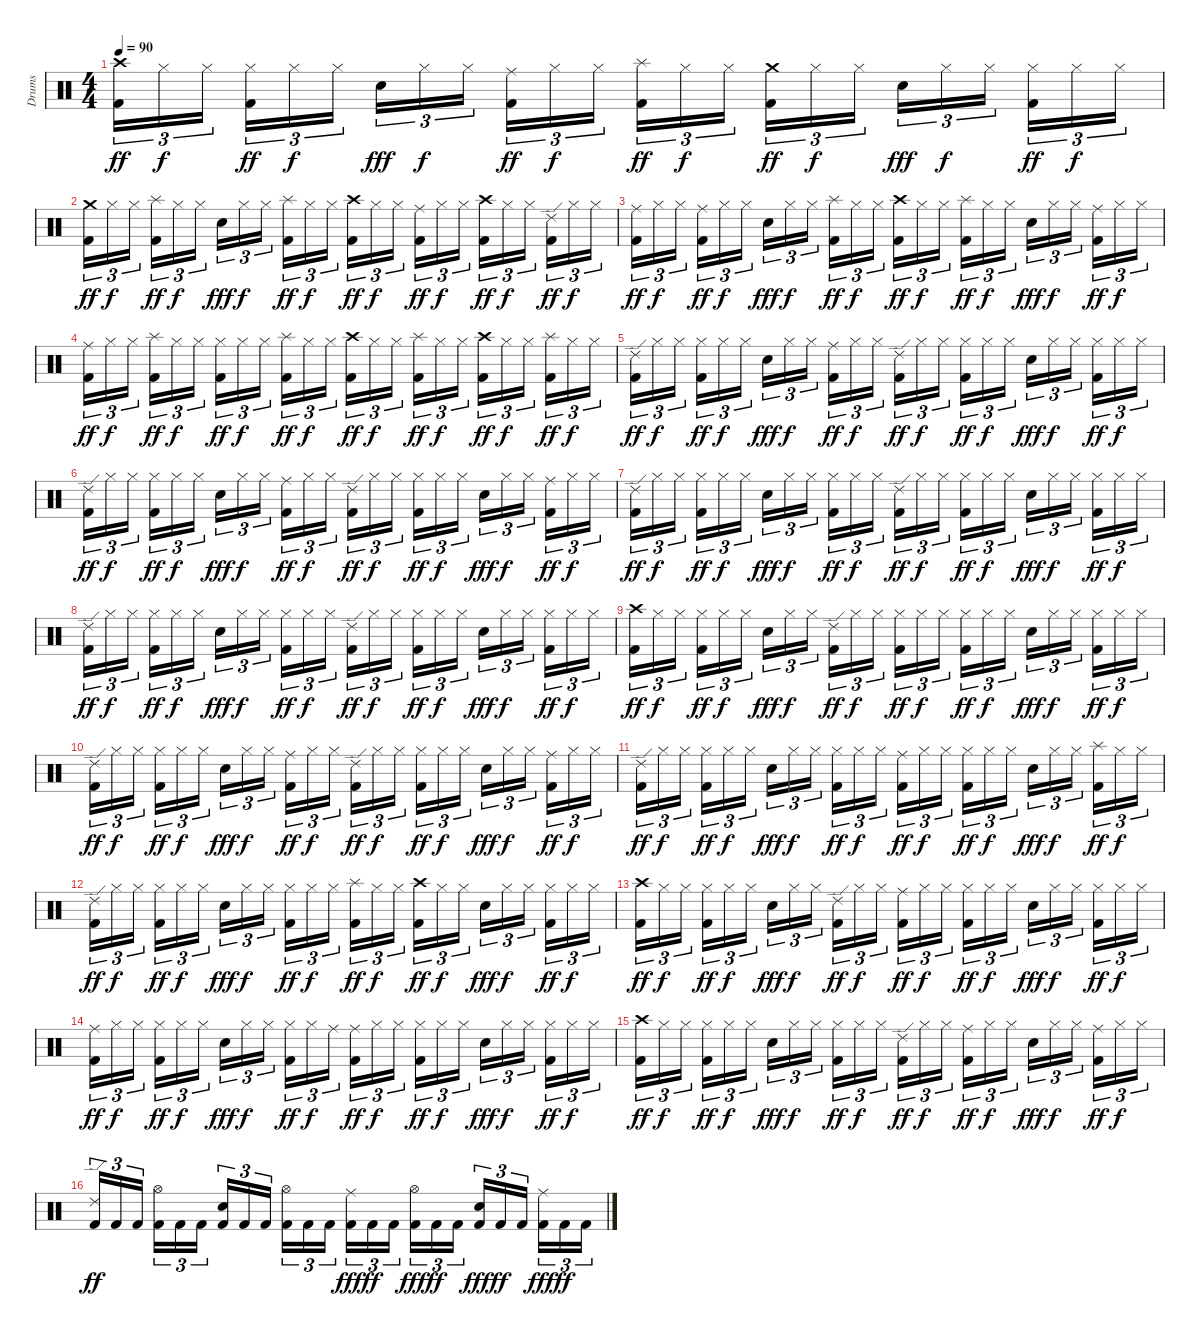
\track ("Drums" "Drums") {instrument percussion}
\staff {score}
\articulation defaults
\ts (4 4)
\tempo 90
\clef neutral
\ks c
("Crash high (hit)" "Kick (hit) 2").16{tu (3 2) dy ff} "Hi-Hat (closed)".16{tu (3 2) dy f} "Hi-Hat (closed)".16{tu (3 2) beam splitsecondary} ("Hi-Hat (closed)" "Kick (hit) 2").16{tu (3 2) dy ff} "Hi-Hat (closed)".16{tu (3 2) dy f} "Hi-Hat (closed)".16{tu (3 2)} "Snare (hit) 2".16{tu (3 2) dy fff} "Hi-Hat (closed)".16{tu (3 2) dy f} "Hi-Hat (closed)".16{tu (3 2) beam splitsecondary} ("Ride (middle)" "Kick (hit) 2").16{tu (3 2) dy ff} "Hi-Hat (closed)".16{tu (3 2) dy f} "Hi-Hat (closed)".16{tu (3 2)} ("Splash (hit)" "Kick (hit) 2").16{tu (3 2) dy ff} "Hi-Hat (closed)".16{tu (3 2) dy f} "Hi-Hat (closed)".16{tu (3 2) beam splitsecondary} ("Crash medium (hit)" "Kick (hit) 2").16{tu (3 2) dy ff} "Hi-Hat (closed)".16{tu (3 2) dy f} "Hi-Hat (closed)".16{tu (3 2)} "Snare (hit) 2".16{tu (3 2) dy fff} "Hi-Hat (closed)".16{tu (3 2) dy f} "Hi-Hat (closed)".16{tu (3 2) beam splitsecondary} ("Hi-Hat (closed)" "Kick (hit) 2").16{tu (3 2) dy ff} "Hi-Hat (closed)".16{tu (3 2) dy f} "Hi-Hat (closed)".16{tu (3 2)} |
("Crash medium (hit)" "Kick (hit) 2").16{tu (3 2) dy ff} "Hi-Hat (closed)".16{tu (3 2) dy f} "Hi-Hat (closed)".16{tu (3 2) beam splitsecondary} ("Splash (hit)" "Kick (hit) 2").16{tu (3 2) dy ff} "Hi-Hat (closed)".16{tu (3 2) dy f} "Hi-Hat (closed)".16{tu (3 2)} "Snare (hit) 2".16{tu (3 2) dy fff} "Hi-Hat (closed)".16{tu (3 2) dy f} "Hi-Hat (closed)".16{tu (3 2) beam splitsecondary} ("Splash (hit)" "Kick (hit) 2").16{tu (3 2) dy ff} "Hi-Hat (closed)".16{tu (3 2) dy f} "Hi-Hat (closed)".16{tu (3 2)} ("Crash high (hit)" "Kick (hit) 2").16{tu (3 2) dy ff} "Hi-Hat (closed)".16{tu (3 2) dy f} "Hi-Hat (closed)".16{tu (3 2) beam splitsecondary} ("Ride (middle)" "Kick (hit) 2").16{tu (3 2) dy ff} "Hi-Hat (closed)".16{tu (3 2) dy f} "Hi-Hat (closed)".16{tu (3 2)} ("Crash high (hit)" "Kick (hit) 2").16{tu (3 2) dy ff} "Hi-Hat (closed)".16{tu (3 2) dy f} "Hi-Hat (closed)".16{tu (3 2) beam splitsecondary} ("Ride (edge) 2" "Kick (hit) 2").16{tu (3 2) dy ff} "Hi-Hat (closed)".16{tu (3 2) dy f} "Hi-Hat (closed)".16{tu (3 2)} |
("Ride (middle)" "Kick (hit) 2").16{tu (3 2) dy ff} "Hi-Hat (closed)".16{tu (3 2) dy f} "Hi-Hat (closed)".16{tu (3 2) beam splitsecondary} ("Ride (middle)" "Kick (hit) 2").16{tu (3 2) dy ff} "Hi-Hat (closed)".16{tu (3 2) dy f} "Hi-Hat (closed)".16{tu (3 2)} "Snare (hit) 2".16{tu (3 2) dy fff} "Hi-Hat (closed)".16{tu (3 2) dy f} "Hi-Hat (closed)".16{tu (3 2) beam splitsecondary} ("Splash (hit)" "Kick (hit) 2").16{tu (3 2) dy ff} "Hi-Hat (closed)".16{tu (3 2) dy f} "Hi-Hat (closed)".16{tu (3 2)} ("Crash high (hit)" "Kick (hit) 2").16{tu (3 2) dy ff} "Hi-Hat (closed)".16{tu (3 2) dy f} "Hi-Hat (closed)".16{tu (3 2) beam splitsecondary} ("Splash (hit)" "Kick (hit) 2").16{tu (3 2) dy ff} "Hi-Hat (closed)".16{tu (3 2) dy f} "Hi-Hat (closed)".16{tu (3 2)} "Snare (hit) 2".16{tu (3 2) dy fff} "Hi-Hat (closed)".16{tu (3 2) dy f} "Hi-Hat (closed)".16{tu (3 2) beam splitsecondary} ("Ride (middle)" "Kick (hit) 2").16{tu (3 2) dy ff} "Hi-Hat (closed)".16{tu (3 2) dy f} "Hi-Hat (closed)".16{tu (3 2)} |
("Ride (middle)" "Kick (hit) 2").16{tu (3 2) dy ff} "Hi-Hat (closed)".16{tu (3 2) dy f} "Hi-Hat (closed)".16{tu (3 2) beam splitsecondary} ("Splash (hit)" "Kick (hit) 2").16{tu (3 2) dy ff} "Hi-Hat (closed)".16{tu (3 2) dy f} "Hi-Hat (closed)".16{tu (3 2)} ("Hi-Hat (closed)" "Kick (hit) 2").16{tu (3 2) dy ff} "Hi-Hat (closed)".16{tu (3 2) dy f} "Hi-Hat (closed)".16{tu (3 2) beam splitsecondary} ("Splash (hit)" "Kick (hit) 2").16{tu (3 2) dy ff} "Hi-Hat (closed)".16{tu (3 2) dy f} "Hi-Hat (closed)".16{tu (3 2)} ("Crash high (hit)" "Kick (hit) 2").16{tu (3 2) dy ff} "Hi-Hat (closed)".16{tu (3 2) dy f} "Hi-Hat (closed)".16{tu (3 2) beam splitsecondary} ("Splash (hit)" "Kick (hit) 2").16{tu (3 2) dy ff} "Hi-Hat (closed)".16{tu (3 2) dy f} "Hi-Hat (closed)".16{tu (3 2)} ("Crash high (hit)" "Kick (hit) 2").16{tu (3 2) dy ff} "Hi-Hat (closed)".16{tu (3 2) dy f} "Hi-Hat (closed)".16{tu (3 2) beam splitsecondary} ("Splash (hit)" "Kick (hit) 2").16{tu (3 2) dy ff} "Hi-Hat (closed)".16{tu (3 2) dy f} "Hi-Hat (closed)".16{tu (3 2)} |
("Ride (edge) 2" "Kick (hit) 2").16{tu (3 2) dy ff} "Hi-Hat (closed)".16{tu (3 2) dy f} "Hi-Hat (closed)".16{tu (3 2) beam splitsecondary} ("Hi-Hat (closed)" "Kick (hit) 2").16{tu (3 2) dy ff} "Hi-Hat (closed)".16{tu (3 2) dy f} "Hi-Hat (closed)".16{tu (3 2)} "Snare (hit) 2".16{tu (3 2) dy fff} "Hi-Hat (closed)".16{tu (3 2) dy f} "Hi-Hat (closed)".16{tu (3 2) beam splitsecondary} ("Ride (middle)" "Kick (hit) 2").16{tu (3 2) dy ff} "Hi-Hat (closed)".16{tu (3 2) dy f} "Hi-Hat (closed)".16{tu (3 2)} ("Ride (edge) 2" "Kick (hit) 2").16{tu (3 2) dy ff} "Hi-Hat (closed)".16{tu (3 2) dy f} "Hi-Hat (closed)".16{tu (3 2) beam splitsecondary} ("Hi-Hat (closed)" "Kick (hit) 2").16{tu (3 2) dy ff} "Hi-Hat (closed)".16{tu (3 2) dy f} "Hi-Hat (closed)".16{tu (3 2)} "Snare (hit) 2".16{tu (3 2) dy fff} "Hi-Hat (closed)".16{tu (3 2) dy f} "Hi-Hat (closed)".16{tu (3 2) beam splitsecondary} ("Hi-Hat (closed)" "Kick (hit) 2").16{tu (3 2) dy ff} "Hi-Hat (closed)".16{tu (3 2) dy f} "Hi-Hat (closed)".16{tu (3 2)} |
("Ride (edge) 2" "Kick (hit) 2").16{tu (3 2) dy ff} "Hi-Hat (closed)".16{tu (3 2) dy f} "Hi-Hat (closed)".16{tu (3 2) beam splitsecondary} ("Hi-Hat (closed)" "Kick (hit) 2").16{tu (3 2) dy ff} "Hi-Hat (closed)".16{tu (3 2) dy f} "Hi-Hat (closed)".16{tu (3 2)} "Snare (hit) 2".16{tu (3 2) dy fff} "Hi-Hat (closed)".16{tu (3 2) dy f} "Hi-Hat (closed)".16{tu (3 2) beam splitsecondary} ("Ride (middle)" "Kick (hit) 2").16{tu (3 2) dy ff} "Hi-Hat (closed)".16{tu (3 2) dy f} "Hi-Hat (closed)".16{tu (3 2)} ("Ride (edge) 2" "Kick (hit) 2").16{tu (3 2) dy ff} "Hi-Hat (closed)".16{tu (3 2) dy f} "Hi-Hat (closed)".16{tu (3 2) beam splitsecondary} ("Hi-Hat (closed)" "Kick (hit) 2").16{tu (3 2) dy ff} "Hi-Hat (closed)".16{tu (3 2) dy f} "Hi-Hat (closed)".16{tu (3 2)} "Snare (hit) 2".16{tu (3 2) dy fff} "Hi-Hat (closed)".16{tu (3 2) dy f} "Hi-Hat (closed)".16{tu (3 2) beam splitsecondary} ("Ride (middle)" "Kick (hit) 2").16{tu (3 2) dy ff} "Hi-Hat (closed)".16{tu (3 2) dy f} "Hi-Hat (closed)".16{tu (3 2)} |
("Ride (edge) 2" "Kick (hit) 2").16{tu (3 2) dy ff} "Hi-Hat (closed)".16{tu (3 2) dy f} "Hi-Hat (closed)".16{tu (3 2) beam splitsecondary} ("Hi-Hat (closed)" "Kick (hit) 2").16{tu (3 2) dy ff} "Hi-Hat (closed)".16{tu (3 2) dy f} "Hi-Hat (closed)".16{tu (3 2)} "Snare (hit) 2".16{tu (3 2) dy fff} "Hi-Hat (closed)".16{tu (3 2) dy f} "Hi-Hat (closed)".16{tu (3 2) beam splitsecondary} ("Hi-Hat (closed)" "Kick (hit) 2").16{tu (3 2) dy ff} "Hi-Hat (closed)".16{tu (3 2) dy f} "Hi-Hat (closed)".16{tu (3 2)} ("Ride (edge) 2" "Kick (hit) 2").16{tu (3 2) dy ff} "Hi-Hat (closed)".16{tu (3 2) dy f} "Hi-Hat (closed)".16{tu (3 2) beam splitsecondary} ("Hi-Hat (closed)" "Kick (hit) 2").16{tu (3 2) dy ff} "Hi-Hat (closed)".16{tu (3 2) dy f} "Hi-Hat (closed)".16{tu (3 2)} "Snare (hit) 2".16{tu (3 2) dy fff} "Hi-Hat (closed)".16{tu (3 2) dy f} "Hi-Hat (closed)".16{tu (3 2) beam splitsecondary} ("Hi-Hat (closed)" "Kick (hit) 2").16{tu (3 2) dy ff} "Hi-Hat (closed)".16{tu (3 2) dy f} "Hi-Hat (closed)".16{tu (3 2)} |
("Ride (edge) 2" "Kick (hit) 2").16{tu (3 2) dy ff} "Hi-Hat (closed)".16{tu (3 2) dy f} "Hi-Hat (closed)".16{tu (3 2) beam splitsecondary} ("Hi-Hat (closed)" "Kick (hit) 2").16{tu (3 2) dy ff} "Hi-Hat (closed)".16{tu (3 2) dy f} "Hi-Hat (closed)".16{tu (3 2)} "Snare (hit) 2".16{tu (3 2) dy fff} "Hi-Hat (closed)".16{tu (3 2) dy f} "Hi-Hat (closed)".16{tu (3 2) beam splitsecondary} ("Hi-Hat (closed)" "Kick (hit) 2").16{tu (3 2) dy ff} "Hi-Hat (closed)".16{tu (3 2) dy f} "Hi-Hat (closed)".16{tu (3 2)} ("Ride (edge) 2" "Kick (hit) 2").16{tu (3 2) dy ff} "Hi-Hat (closed)".16{tu (3 2) dy f} "Hi-Hat (closed)".16{tu (3 2) beam splitsecondary} ("Hi-Hat (closed)" "Kick (hit) 2").16{tu (3 2) dy ff} "Hi-Hat (closed)".16{tu (3 2) dy f} "Hi-Hat (closed)".16{tu (3 2)} "Snare (hit) 2".16{tu (3 2) dy fff} "Hi-Hat (closed)".16{tu (3 2) dy f} "Hi-Hat (closed)".16{tu (3 2) beam splitsecondary} ("Hi-Hat (closed)" "Kick (hit) 2").16{tu (3 2) dy ff} "Hi-Hat (closed)".16{tu (3 2) dy f} "Hi-Hat (closed)".16{tu (3 2)} |
("Crash high (hit)" "Kick (hit) 2").16{tu (3 2) dy ff} "Hi-Hat (closed)".16{tu (3 2) dy f} "Hi-Hat (closed)".16{tu (3 2) beam splitsecondary} ("Hi-Hat (closed)" "Kick (hit) 2").16{tu (3 2) dy ff} "Hi-Hat (closed)".16{tu (3 2) dy f} "Hi-Hat (closed)".16{tu (3 2)} "Snare (hit) 2".16{tu (3 2) dy fff} "Hi-Hat (closed)".16{tu (3 2) dy f} "Hi-Hat (closed)".16{tu (3 2) beam splitsecondary} ("Ride (edge) 2" "Kick (hit) 2").16{tu (3 2) dy ff} "Hi-Hat (closed)".16{tu (3 2) dy f} "Hi-Hat (closed)".16{tu (3 2)} ("Hi-Hat (closed)" "Kick (hit) 2").16{tu (3 2) dy ff} "Hi-Hat (closed)".16{tu (3 2) dy f} "Hi-Hat (closed)".16{tu (3 2) beam splitsecondary} ("Hi-Hat (closed)" "Kick (hit) 2").16{tu (3 2) dy ff} "Hi-Hat (closed)".16{tu (3 2) dy f} "Hi-Hat (closed)".16{tu (3 2)} "Snare (hit) 2".16{tu (3 2) dy fff} "Hi-Hat (closed)".16{tu (3 2) dy f} "Hi-Hat (closed)".16{tu (3 2) beam splitsecondary} ("Hi-Hat (closed)" "Kick (hit) 2").16{tu (3 2) dy ff} "Hi-Hat (closed)".16{tu (3 2) dy f} "Hi-Hat (closed)".16{tu (3 2)} |
("Ride (edge) 2" "Kick (hit) 2").16{tu (3 2) dy ff} "Hi-Hat (closed)".16{tu (3 2) dy f} "Hi-Hat (closed)".16{tu (3 2) beam splitsecondary} ("Hi-Hat (closed)" "Kick (hit) 2").16{tu (3 2) dy ff} "Hi-Hat (closed)".16{tu (3 2) dy f} "Hi-Hat (closed)".16{tu (3 2)} "Snare (hit) 2".16{tu (3 2) dy fff} "Hi-Hat (closed)".16{tu (3 2) dy f} "Hi-Hat (closed)".16{tu (3 2) beam splitsecondary} ("Ride (middle)" "Kick (hit) 2").16{tu (3 2) dy ff} "Hi-Hat (closed)".16{tu (3 2) dy f} "Hi-Hat (closed)".16{tu (3 2)} ("Ride (edge) 2" "Kick (hit) 2").16{tu (3 2) dy ff} "Hi-Hat (closed)".16{tu (3 2) dy f} "Hi-Hat (closed)".16{tu (3 2) beam splitsecondary} ("Hi-Hat (closed)" "Kick (hit) 2").16{tu (3 2) dy ff} "Hi-Hat (closed)".16{tu (3 2) dy f} "Hi-Hat (closed)".16{tu (3 2)} "Snare (hit) 2".16{tu (3 2) dy fff} "Hi-Hat (closed)".16{tu (3 2) dy f} "Hi-Hat (closed)".16{tu (3 2) beam splitsecondary} ("Ride (middle)" "Kick (hit) 2").16{tu (3 2) dy ff} "Hi-Hat (closed)".16{tu (3 2) dy f} "Hi-Hat (closed)".16{tu (3 2)} |
("Ride (edge) 2" "Kick (hit) 2").16{tu (3 2) dy ff} "Hi-Hat (closed)".16{tu (3 2) dy f} "Hi-Hat (closed)".16{tu (3 2) beam splitsecondary} ("Hi-Hat (closed)" "Kick (hit) 2").16{tu (3 2) dy ff} "Hi-Hat (closed)".16{tu (3 2) dy f} "Hi-Hat (closed)".16{tu (3 2)} "Snare (hit) 2".16{tu (3 2) dy fff} "Hi-Hat (closed)".16{tu (3 2) dy f} "Hi-Hat (closed)".16{tu (3 2) beam splitsecondary} ("Hi-Hat (closed)" "Kick (hit) 2").16{tu (3 2) dy ff} "Hi-Hat (closed)".16{tu (3 2) dy f} "Hi-Hat (closed)".16{tu (3 2)} ("Ride (middle)" "Kick (hit) 2").16{tu (3 2) dy ff} "Hi-Hat (closed)".16{tu (3 2) dy f} "Hi-Hat (closed)".16{tu (3 2) beam splitsecondary} ("Hi-Hat (closed)" "Kick (hit) 2").16{tu (3 2) dy ff} "Hi-Hat (closed)".16{tu (3 2) dy f} "Hi-Hat (closed)".16{tu (3 2)} "Snare (hit) 2".16{tu (3 2) dy fff} "Hi-Hat (closed)".16{tu (3 2) dy f} "Hi-Hat (closed)".16{tu (3 2) beam splitsecondary} ("Splash (hit)" "Kick (hit) 2").16{tu (3 2) dy ff} "Hi-Hat (closed)".16{tu (3 2) dy f} "Hi-Hat (closed)".16{tu (3 2)} |
("Ride (edge) 2" "Kick (hit) 2").16{tu (3 2) dy ff} "Hi-Hat (closed)".16{tu (3 2) dy f} "Hi-Hat (closed)".16{tu (3 2) beam splitsecondary} ("Hi-Hat (closed)" "Kick (hit) 2").16{tu (3 2) dy ff} "Hi-Hat (closed)".16{tu (3 2) dy f} "Hi-Hat (closed)".16{tu (3 2)} "Snare (hit) 2".16{tu (3 2) dy fff} "Hi-Hat (closed)".16{tu (3 2) dy f} "Hi-Hat (closed)".16{tu (3 2) beam splitsecondary} ("Hi-Hat (closed)" "Kick (hit) 2").16{tu (3 2) dy ff} "Hi-Hat (closed)".16{tu (3 2) dy f} "Hi-Hat (closed)".16{tu (3 2)} ("Splash (hit)" "Kick (hit) 2").16{tu (3 2) dy ff} "Hi-Hat (closed)".16{tu (3 2) dy f} "Hi-Hat (closed)".16{tu (3 2) beam splitsecondary} ("Crash high (hit)" "Kick (hit) 2").16{tu (3 2) dy ff} "Hi-Hat (closed)".16{tu (3 2) dy f} "Hi-Hat (closed)".16{tu (3 2)} "Snare (hit) 2".16{tu (3 2) dy fff} "Hi-Hat (closed)".16{tu (3 2) dy f} "Hi-Hat (closed)".16{tu (3 2) beam splitsecondary} ("Hi-Hat (closed)" "Kick (hit) 2").16{tu (3 2) dy ff} "Hi-Hat (closed)".16{tu (3 2) dy f} "Hi-Hat (closed)".16{tu (3 2)} |
("Crash high (hit)" "Kick (hit) 2").16{tu (3 2) dy ff} "Hi-Hat (closed)".16{tu (3 2) dy f} "Hi-Hat (closed)".16{tu (3 2) beam splitsecondary} ("Hi-Hat (closed)" "Kick (hit) 2").16{tu (3 2) dy ff} "Hi-Hat (closed)".16{tu (3 2) dy f} "Hi-Hat (closed)".16{tu (3 2)} "Snare (hit) 2".16{tu (3 2) dy fff} "Hi-Hat (closed)".16{tu (3 2) dy f} "Hi-Hat (closed)".16{tu (3 2) beam splitsecondary} ("Ride (edge) 2" "Kick (hit) 2").16{tu (3 2) dy ff} "Hi-Hat (closed)".16{tu (3 2) dy f} "Hi-Hat (closed)".16{tu (3 2)} ("Ride (middle)" "Kick (hit) 2").16{tu (3 2) dy ff} "Hi-Hat (closed)".16{tu (3 2) dy f} "Hi-Hat (closed)".16{tu (3 2) beam splitsecondary} ("Hi-Hat (closed)" "Kick (hit) 2").16{tu (3 2) dy ff} "Hi-Hat (closed)".16{tu (3 2) dy f} "Hi-Hat (closed)".16{tu (3 2)} "Snare (hit) 2".16{tu (3 2) dy fff} "Hi-Hat (closed)".16{tu (3 2) dy f} "Hi-Hat (closed)".16{tu (3 2) beam splitsecondary} ("Hi-Hat (closed)" "Kick (hit) 2").16{tu (3 2) dy ff} "Hi-Hat (closed)".16{tu (3 2) dy f} "Hi-Hat (closed)".16{tu (3 2)} |
("Ride (middle)" "Kick (hit) 2").16{tu (3 2) dy ff} "Hi-Hat (closed)".16{tu (3 2) dy f} "Hi-Hat (closed)".16{tu (3 2) beam splitsecondary} ("Hi-Hat (closed)" "Kick (hit) 2").16{tu (3 2) dy ff} "Hi-Hat (closed)".16{tu (3 2) dy f} "Hi-Hat (closed)".16{tu (3 2)} "Snare (hit) 2".16{tu (3 2) dy fff} "Hi-Hat (closed)".16{tu (3 2) dy f} "Hi-Hat (closed)".16{tu (3 2) beam splitsecondary} ("Hi-Hat (closed)" "Kick (hit) 2").16{tu (3 2) dy ff} "Hi-Hat (closed)".16{tu (3 2) dy f} "Ride (middle)".16{tu (3 2)} ("Ride (middle)" "Kick (hit) 2").16{tu (3 2) dy ff} "Hi-Hat (closed)".16{tu (3 2) dy f} "Hi-Hat (closed)".16{tu (3 2) beam splitsecondary} ("Hi-Hat (closed)" "Kick (hit) 2").16{tu (3 2) dy ff} "Hi-Hat (closed)".16{tu (3 2) dy f} "Hi-Hat (closed)".16{tu (3 2)} "Snare (hit) 2".16{tu (3 2) dy fff} "Hi-Hat (closed)".16{tu (3 2) dy f} "Hi-Hat (closed)".16{tu (3 2) beam splitsecondary} ("Hi-Hat (closed)" "Kick (hit) 2").16{tu (3 2) dy ff} "Hi-Hat (closed)".16{tu (3 2) dy f} "Hi-Hat (closed)".16{tu (3 2)} |
("Crash high (hit)" "Kick (hit) 2").16{tu (3 2) dy ff} "Hi-Hat (closed)".16{tu (3 2) dy f} "Hi-Hat (closed)".16{tu (3 2) beam splitsecondary} ("Hi-Hat (closed)" "Kick (hit) 2").16{tu (3 2) dy ff} "Hi-Hat (closed)".16{tu (3 2) dy f} "Hi-Hat (closed)".16{tu (3 2)} "Snare (hit) 2".16{tu (3 2) dy fff} "Hi-Hat (closed)".16{tu (3 2) dy f} "Hi-Hat (closed)".16{tu (3 2) beam splitsecondary} ("Hi-Hat (closed)" "Kick (hit) 2").16{tu (3 2) dy ff} "Hi-Hat (closed)".16{tu (3 2) dy f} "Hi-Hat (closed)".16{tu (3 2)} ("Ride (edge) 2" "Kick (hit) 2").16{tu (3 2) dy ff} "Hi-Hat (closed)".16{tu (3 2) dy f} "Hi-Hat (closed)".16{tu (3 2) beam splitsecondary} ("Ride (middle)" "Kick (hit) 2").16{tu (3 2) dy ff} "Hi-Hat (closed)".16{tu (3 2) dy f} "Hi-Hat (closed)".16{tu (3 2)} "Snare (hit) 2".16{tu (3 2) dy fff} "Hi-Hat (closed)".16{tu (3 2) dy f} "Hi-Hat (closed)".16{tu (3 2) beam splitsecondary} ("Ride (middle)" "Kick (hit) 2").16{tu (3 2) dy ff} "Hi-Hat (closed)".16{tu (3 2) dy f} "Hi-Hat (closed)".16{tu (3 2)} |
("Ride (edge) 2" "Kick (hit) 2").16{tu (3 2) dy ff} "Kick (hit) 2".16{tu (3 2)} "Kick (hit) 2".16{tu (3 2) beam splitsecondary} ("Hi-Hat (open)" "Kick (hit) 2").16{tu (3 2)} "Kick (hit) 2".16{tu (3 2)} "Kick (hit) 2".16{tu (3 2)} ("Snare (hit) 2" "Kick (hit) 2").16{tu (3 2)} "Kick (hit) 2".16{tu (3 2)} "Kick (hit) 2".16{tu (3 2) beam splitsecondary} ("Hi-Hat (open)" "Kick (hit) 2").16{tu (3 2)} "Kick (hit) 2".16{tu (3 2)} "Kick (hit) 2".16{tu (3 2)} ("Ride (middle)" "Kick (hit) 2").16{tu (3 2) dy fff} "Kick (hit) 2".16{tu (3 2) dy ff} "Kick (hit) 2".16{tu (3 2) beam splitsecondary} ("Hi-Hat (open)" "Kick (hit) 2").16{tu (3 2) dy fff} "Kick (hit) 2".16{tu (3 2) dy ff} "Kick (hit) 2".16{tu (3 2)} ("Snare (hit) 2" "Kick (hit) 2").16{tu (3 2) dy fff} "Kick (hit) 2".16{tu (3 2) dy ff} "Kick (hit) 2".16{tu (3 2) beam splitsecondary} ("Ride (middle)" "Kick (hit) 2").16{tu (3 2) dy fff} "Kick (hit) 2".16{tu (3 2) dy ff} "Kick (hit) 2".16{tu (3 2)}
